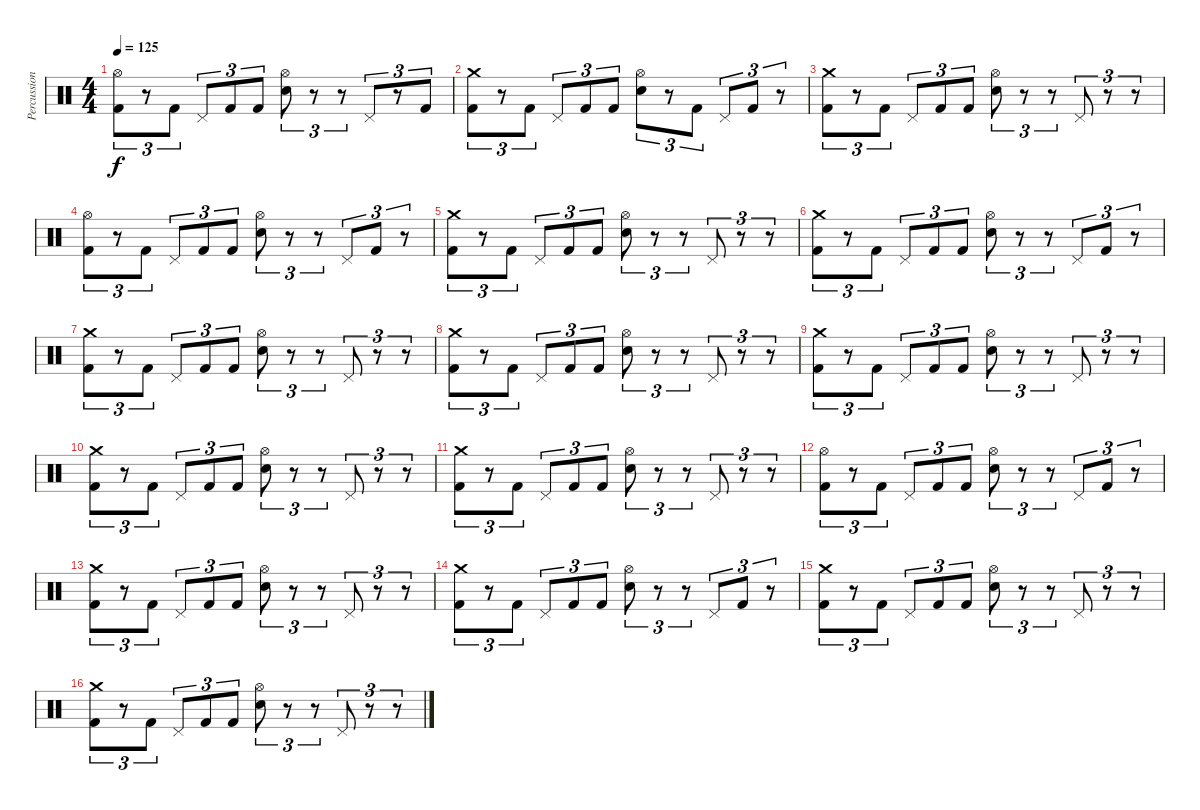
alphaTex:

\track ("Percussion" "Percussion") {instrument percussion}
\staff {score}
\articulation defaults
\ts (4 4)
\tempo 125
\clef neutral
\ks c
("Hi-Hat (open)" "Kick (hit) 2").8{tu (3 2) dy f} r.8{tu (3 2)} "Kick (hit) 2".8{tu (3 2)} "Pedal Hi-Hat (hit)".8{tu (3 2)} "Kick (hit) 2".8{tu (3 2)} "Kick (hit) 2".8{tu (3 2)} ("Hi-Hat (open)" "Electric Snare (hit)").8{tu (3 2)} r.8{tu (3 2)} r.8{tu (3 2)} "Pedal Hi-Hat (hit)".8{tu (3 2)} r.8{tu (3 2)} "Kick (hit) 2".8{tu (3 2)} |
("Crash medium (hit)" "Kick (hit) 2").8{tu (3 2)} r.8{tu (3 2)} "Kick (hit) 2".8{tu (3 2)} "Pedal Hi-Hat (hit)".8{tu (3 2)} "Kick (hit) 2".8{tu (3 2)} "Kick (hit) 2".8{tu (3 2)} ("Hi-Hat (open)" "Electric Snare (hit)").8{tu (3 2)} r.8{tu (3 2)} "Kick (hit) 2".8{tu (3 2)} "Pedal Hi-Hat (hit)".8{tu (3 2)} "Kick (hit) 2".8{tu (3 2)} r.8{tu (3 2)} |
("Crash medium (hit)" "Kick (hit) 2").8{tu (3 2)} r.8{tu (3 2)} "Kick (hit) 2".8{tu (3 2)} "Pedal Hi-Hat (hit)".8{tu (3 2)} "Kick (hit) 2".8{tu (3 2)} "Kick (hit) 2".8{tu (3 2)} ("Hi-Hat (open)" "Electric Snare (hit)").8{tu (3 2)} r.8{tu (3 2)} r.8{tu (3 2)} "Pedal Hi-Hat (hit)".8{tu (3 2)} r.8{tu (3 2)} r.8{tu (3 2)} |
("Hi-Hat (open)" "Kick (hit) 2").8{tu (3 2)} r.8{tu (3 2)} "Kick (hit) 2".8{tu (3 2)} "Pedal Hi-Hat (hit)".8{tu (3 2)} "Kick (hit) 2".8{tu (3 2)} "Kick (hit) 2".8{tu (3 2)} ("Hi-Hat (open)" "Electric Snare (hit)").8{tu (3 2)} r.8{tu (3 2)} r.8{tu (3 2)} "Pedal Hi-Hat (hit)".8{tu (3 2)} "Kick (hit) 2".8{tu (3 2)} r.8{tu (3 2)} |
("Crash medium (hit)" "Kick (hit) 2").8{tu (3 2)} r.8{tu (3 2)} "Kick (hit) 2".8{tu (3 2)} "Pedal Hi-Hat (hit)".8{tu (3 2)} "Kick (hit) 2".8{tu (3 2)} "Kick (hit) 2".8{tu (3 2)} ("Hi-Hat (open)" "Electric Snare (hit)").8{tu (3 2)} r.8{tu (3 2)} r.8{tu (3 2)} "Pedal Hi-Hat (hit)".8{tu (3 2)} r.8{tu (3 2)} r.8{tu (3 2)} |
("Crash medium (hit)" "Kick (hit) 2").8{tu (3 2)} r.8{tu (3 2)} "Kick (hit) 2".8{tu (3 2)} "Pedal Hi-Hat (hit)".8{tu (3 2)} "Kick (hit) 2".8{tu (3 2)} "Kick (hit) 2".8{tu (3 2)} ("Hi-Hat (open)" "Electric Snare (hit)").8{tu (3 2)} r.8{tu (3 2)} r.8{tu (3 2)} "Pedal Hi-Hat (hit)".8{tu (3 2)} "Kick (hit) 2".8{tu (3 2)} r.8{tu (3 2)} |
("Crash medium (hit)" "Kick (hit) 2").8{tu (3 2)} r.8{tu (3 2)} "Kick (hit) 2".8{tu (3 2)} "Pedal Hi-Hat (hit)".8{tu (3 2)} "Kick (hit) 2".8{tu (3 2)} "Kick (hit) 2".8{tu (3 2)} ("Hi-Hat (open)" "Electric Snare (hit)").8{tu (3 2)} r.8{tu (3 2)} r.8{tu (3 2)} "Pedal Hi-Hat (hit)".8{tu (3 2)} r.8{tu (3 2)} r.8{tu (3 2)} |
("Crash medium (hit)" "Kick (hit) 2").8{tu (3 2)} r.8{tu (3 2)} "Kick (hit) 2".8{tu (3 2)} "Pedal Hi-Hat (hit)".8{tu (3 2)} "Kick (hit) 2".8{tu (3 2)} "Kick (hit) 2".8{tu (3 2)} ("Hi-Hat (open)" "Electric Snare (hit)").8{tu (3 2)} r.8{tu (3 2)} r.8{tu (3 2)} "Pedal Hi-Hat (hit)".8{tu (3 2)} r.8{tu (3 2)} r.8{tu (3 2)} |
("Crash medium (hit)" "Kick (hit) 2").8{tu (3 2)} r.8{tu (3 2)} "Kick (hit) 2".8{tu (3 2)} "Pedal Hi-Hat (hit)".8{tu (3 2)} "Kick (hit) 2".8{tu (3 2)} "Kick (hit) 2".8{tu (3 2)} ("Hi-Hat (open)" "Electric Snare (hit)").8{tu (3 2)} r.8{tu (3 2)} r.8{tu (3 2)} "Pedal Hi-Hat (hit)".8{tu (3 2)} r.8{tu (3 2)} r.8{tu (3 2)} |
("Crash medium (hit)" "Kick (hit) 2").8{tu (3 2)} r.8{tu (3 2)} "Kick (hit) 2".8{tu (3 2)} "Pedal Hi-Hat (hit)".8{tu (3 2)} "Kick (hit) 2".8{tu (3 2)} "Kick (hit) 2".8{tu (3 2)} ("Hi-Hat (open)" "Electric Snare (hit)").8{tu (3 2)} r.8{tu (3 2)} r.8{tu (3 2)} "Pedal Hi-Hat (hit)".8{tu (3 2)} r.8{tu (3 2)} r.8{tu (3 2)} |
("Crash medium (hit)" "Kick (hit) 2").8{tu (3 2)} r.8{tu (3 2)} "Kick (hit) 2".8{tu (3 2)} "Pedal Hi-Hat (hit)".8{tu (3 2)} "Kick (hit) 2".8{tu (3 2)} "Kick (hit) 2".8{tu (3 2)} ("Hi-Hat (open)" "Electric Snare (hit)").8{tu (3 2)} r.8{tu (3 2)} r.8{tu (3 2)} "Pedal Hi-Hat (hit)".8{tu (3 2)} r.8{tu (3 2)} r.8{tu (3 2)} |
("Hi-Hat (open)" "Kick (hit) 2").8{tu (3 2)} r.8{tu (3 2)} "Kick (hit) 2".8{tu (3 2)} "Pedal Hi-Hat (hit)".8{tu (3 2)} "Kick (hit) 2".8{tu (3 2)} "Kick (hit) 2".8{tu (3 2)} ("Hi-Hat (open)" "Electric Snare (hit)").8{tu (3 2)} r.8{tu (3 2)} r.8{tu (3 2)} "Pedal Hi-Hat (hit)".8{tu (3 2)} "Kick (hit) 2".8{tu (3 2)} r.8{tu (3 2)} |
("Crash medium (hit)" "Kick (hit) 2").8{tu (3 2)} r.8{tu (3 2)} "Kick (hit) 2".8{tu (3 2)} "Pedal Hi-Hat (hit)".8{tu (3 2)} "Kick (hit) 2".8{tu (3 2)} "Kick (hit) 2".8{tu (3 2)} ("Hi-Hat (open)" "Electric Snare (hit)").8{tu (3 2)} r.8{tu (3 2)} r.8{tu (3 2)} "Pedal Hi-Hat (hit)".8{tu (3 2)} r.8{tu (3 2)} r.8{tu (3 2)} |
("Crash medium (hit)" "Kick (hit) 2").8{tu (3 2)} r.8{tu (3 2)} "Kick (hit) 2".8{tu (3 2)} "Pedal Hi-Hat (hit)".8{tu (3 2)} "Kick (hit) 2".8{tu (3 2)} "Kick (hit) 2".8{tu (3 2)} ("Hi-Hat (open)" "Electric Snare (hit)").8{tu (3 2)} r.8{tu (3 2)} r.8{tu (3 2)} "Pedal Hi-Hat (hit)".8{tu (3 2)} "Kick (hit) 2".8{tu (3 2)} r.8{tu (3 2)} |
("Crash medium (hit)" "Kick (hit) 2").8{tu (3 2)} r.8{tu (3 2)} "Kick (hit) 2".8{tu (3 2)} "Pedal Hi-Hat (hit)".8{tu (3 2)} "Kick (hit) 2".8{tu (3 2)} "Kick (hit) 2".8{tu (3 2)} ("Hi-Hat (open)" "Electric Snare (hit)").8{tu (3 2)} r.8{tu (3 2)} r.8{tu (3 2)} "Pedal Hi-Hat (hit)".8{tu (3 2)} r.8{tu (3 2)} r.8{tu (3 2)} |
("Crash medium (hit)" "Kick (hit) 2").8{tu (3 2)} r.8{tu (3 2)} "Kick (hit) 2".8{tu (3 2)} "Pedal Hi-Hat (hit)".8{tu (3 2)} "Kick (hit) 2".8{tu (3 2)} "Kick (hit) 2".8{tu (3 2)} ("Hi-Hat (open)" "Electric Snare (hit)").8{tu (3 2)} r.8{tu (3 2)} r.8{tu (3 2)} "Pedal Hi-Hat (hit)".8{tu (3 2)} r.8{tu (3 2)} r.8{tu (3 2)}
